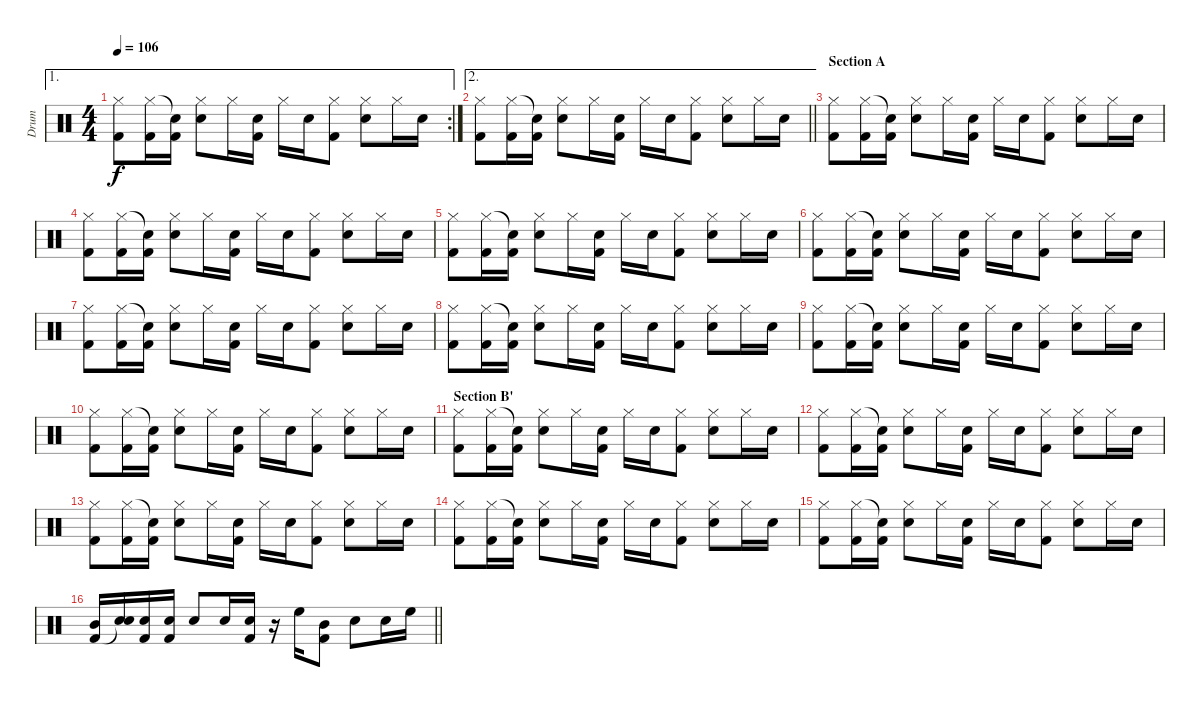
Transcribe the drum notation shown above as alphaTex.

\track ("Drum" "Drum") {instrument percussion}
\staff {score}
\articulation defaults
\ae 1
\rc 2
\ts (4 4)
\tempo 106
\clef neutral
\ks c
("Hi-Hat (closed)" "Kick (hit) 2").8{dy f} ("Hi-Hat (closed)" "Kick (hit) 2").16 ("Snare (hit)"{t} "Kick (hit) 2").16 ("Hi-Hat (closed)" "Snare (hit) 2").8 "Hi-Hat (closed)".16 ("Snare (hit) 2" "Kick (hit) 2").16 "Hi-Hat (closed)".16 "Snare (hit) 2".16 ("Hi-Hat (closed)" "Kick (hit) 2").8 ("Hi-Hat (closed)" "Snare (hit) 2").8 "Hi-Hat (closed)".16 "Snare (hit) 2".16 |
\ae 2
\barLineRight lightlight
("Hi-Hat (closed)" "Kick (hit) 2").8 ("Hi-Hat (closed)" "Kick (hit) 2").16 ("Snare (hit)"{t} "Kick (hit) 2").16 ("Hi-Hat (closed)" "Snare (hit) 2").8 "Hi-Hat (closed)".16 ("Snare (hit) 2" "Kick (hit) 2").16 "Hi-Hat (closed)".16 "Snare (hit) 2".16 ("Hi-Hat (closed)" "Kick (hit) 2").8 ("Hi-Hat (closed)" "Snare (hit) 2").8 "Hi-Hat (closed)".16 "Snare (hit) 2".16 |
\section ("" "Section A")
("Hi-Hat (closed)" "Kick (hit) 2").8 ("Hi-Hat (closed)" "Kick (hit) 2").16 ("Snare (hit)"{t} "Kick (hit) 2").16 ("Hi-Hat (closed)" "Snare (hit) 2").8 "Hi-Hat (closed)".16 ("Snare (hit) 2" "Kick (hit) 2").16 "Hi-Hat (closed)".16 "Snare (hit) 2".16 ("Hi-Hat (closed)" "Kick (hit) 2").8 ("Hi-Hat (closed)" "Snare (hit) 2").8 "Hi-Hat (closed)".16 "Snare (hit) 2".16 |
("Hi-Hat (closed)" "Kick (hit) 2").8 ("Hi-Hat (closed)" "Kick (hit) 2").16 ("Snare (hit)"{t} "Kick (hit) 2").16 ("Hi-Hat (closed)" "Snare (hit) 2").8 "Hi-Hat (closed)".16 ("Snare (hit) 2" "Kick (hit) 2").16 "Hi-Hat (closed)".16 "Snare (hit) 2".16 ("Hi-Hat (closed)" "Kick (hit) 2").8 ("Hi-Hat (closed)" "Snare (hit) 2").8 "Hi-Hat (closed)".16 "Snare (hit) 2".16 |
("Hi-Hat (closed)" "Kick (hit) 2").8 ("Hi-Hat (closed)" "Kick (hit) 2").16 ("Snare (hit)"{t} "Kick (hit) 2").16 ("Hi-Hat (closed)" "Snare (hit) 2").8 "Hi-Hat (closed)".16 ("Snare (hit) 2" "Kick (hit) 2").16 "Hi-Hat (closed)".16 "Snare (hit) 2".16 ("Hi-Hat (closed)" "Kick (hit) 2").8 ("Hi-Hat (closed)" "Snare (hit) 2").8 "Hi-Hat (closed)".16 "Snare (hit) 2".16 |
("Hi-Hat (closed)" "Kick (hit) 2").8 ("Hi-Hat (closed)" "Kick (hit) 2").16 ("Snare (hit)"{t} "Kick (hit) 2").16 ("Hi-Hat (closed)" "Snare (hit) 2").8 "Hi-Hat (closed)".16 ("Snare (hit) 2" "Kick (hit) 2").16 "Hi-Hat (closed)".16 "Snare (hit) 2".16 ("Hi-Hat (closed)" "Kick (hit) 2").8 ("Hi-Hat (closed)" "Snare (hit) 2").8 "Hi-Hat (closed)".16 "Snare (hit) 2".16 |
("Hi-Hat (closed)" "Kick (hit) 2").8 ("Hi-Hat (closed)" "Kick (hit) 2").16 ("Snare (hit)"{t} "Kick (hit) 2").16 ("Hi-Hat (closed)" "Snare (hit) 2").8 "Hi-Hat (closed)".16 ("Snare (hit) 2" "Kick (hit) 2").16 "Hi-Hat (closed)".16 "Snare (hit) 2".16 ("Hi-Hat (closed)" "Kick (hit) 2").8 ("Hi-Hat (closed)" "Snare (hit) 2").8 "Hi-Hat (closed)".16 "Snare (hit) 2".16 |
("Hi-Hat (closed)" "Kick (hit) 2").8 ("Hi-Hat (closed)" "Kick (hit) 2").16 ("Snare (hit)"{t} "Kick (hit) 2").16 ("Hi-Hat (closed)" "Snare (hit) 2").8 "Hi-Hat (closed)".16 ("Snare (hit) 2" "Kick (hit) 2").16 "Hi-Hat (closed)".16 "Snare (hit) 2".16 ("Hi-Hat (closed)" "Kick (hit) 2").8 ("Hi-Hat (closed)" "Snare (hit) 2").8 "Hi-Hat (closed)".16 "Snare (hit) 2".16 |
("Hi-Hat (closed)" "Kick (hit) 2").8 ("Hi-Hat (closed)" "Kick (hit) 2").16 ("Snare (hit)"{t} "Kick (hit) 2").16 ("Hi-Hat (closed)" "Snare (hit) 2").8 "Hi-Hat (closed)".16 ("Snare (hit) 2" "Kick (hit) 2").16 "Hi-Hat (closed)".16 "Snare (hit) 2".16 ("Hi-Hat (closed)" "Kick (hit) 2").8 ("Hi-Hat (closed)" "Snare (hit) 2").8 "Hi-Hat (closed)".16 "Snare (hit) 2".16 |
("Hi-Hat (closed)" "Kick (hit) 2").8 ("Hi-Hat (closed)" "Kick (hit) 2").16 ("Snare (hit)"{t} "Kick (hit) 2").16 ("Hi-Hat (closed)" "Snare (hit) 2").8 "Hi-Hat (closed)".16 ("Snare (hit) 2" "Kick (hit) 2").16 "Hi-Hat (closed)".16 "Snare (hit) 2".16 ("Hi-Hat (closed)" "Kick (hit) 2").8 ("Hi-Hat (closed)" "Snare (hit) 2").8 "Hi-Hat (closed)".16 "Snare (hit) 2".16 |
\section ("" "Section B'")
("Hi-Hat (closed)" "Kick (hit) 2").8 ("Hi-Hat (closed)" "Kick (hit) 2").16 ("Snare (hit)"{t} "Kick (hit) 2").16 ("Hi-Hat (closed)" "Snare (hit) 2").8 "Hi-Hat (closed)".16 ("Snare (hit) 2" "Kick (hit) 2").16 "Hi-Hat (closed)".16 "Snare (hit) 2".16 ("Hi-Hat (closed)" "Kick (hit) 2").8 ("Hi-Hat (closed)" "Snare (hit) 2").8 "Hi-Hat (closed)".16 "Snare (hit) 2".16 |
("Hi-Hat (closed)" "Kick (hit) 2").8 ("Hi-Hat (closed)" "Kick (hit) 2").16 ("Snare (hit)"{t} "Kick (hit) 2").16 ("Hi-Hat (closed)" "Snare (hit) 2").8 "Hi-Hat (closed)".16 ("Snare (hit) 2" "Kick (hit) 2").16 "Hi-Hat (closed)".16 "Snare (hit) 2".16 ("Hi-Hat (closed)" "Kick (hit) 2").8 ("Hi-Hat (closed)" "Snare (hit) 2").8 "Hi-Hat (closed)".16 "Snare (hit) 2".16 |
("Hi-Hat (closed)" "Kick (hit) 2").8 ("Hi-Hat (closed)" "Kick (hit) 2").16 ("Snare (hit)"{t} "Kick (hit) 2").16 ("Hi-Hat (closed)" "Snare (hit) 2").8 "Hi-Hat (closed)".16 ("Snare (hit) 2" "Kick (hit) 2").16 "Hi-Hat (closed)".16 "Snare (hit) 2".16 ("Hi-Hat (closed)" "Kick (hit) 2").8 ("Hi-Hat (closed)" "Snare (hit) 2").8 "Hi-Hat (closed)".16 "Snare (hit) 2".16 |
("Hi-Hat (closed)" "Kick (hit) 2").8 ("Hi-Hat (closed)" "Kick (hit) 2").16 ("Snare (hit)"{t} "Kick (hit) 2").16 ("Hi-Hat (closed)" "Snare (hit) 2").8 "Hi-Hat (closed)".16 ("Snare (hit) 2" "Kick (hit) 2").16 "Hi-Hat (closed)".16 "Snare (hit) 2".16 ("Hi-Hat (closed)" "Kick (hit) 2").8 ("Hi-Hat (closed)" "Snare (hit) 2").8 "Hi-Hat (closed)".16 "Snare (hit) 2".16 |
("Hi-Hat (closed)" "Kick (hit) 2").8 ("Hi-Hat (closed)" "Kick (hit) 2").16 ("Snare (hit)"{t} "Kick (hit) 2").16 ("Hi-Hat (closed)" "Snare (hit) 2").8 "Hi-Hat (closed)".16 ("Snare (hit) 2" "Kick (hit) 2").16 "Hi-Hat (closed)".16 "Snare (hit) 2".16 ("Hi-Hat (closed)" "Kick (hit) 2").8 ("Hi-Hat (closed)" "Snare (hit) 2").8 "Hi-Hat (closed)".16 "Snare (hit) 2".16 |
\barLineRight lightlight
("Mid Tom (hit)" "Kick (hit) 2").16 ("Snare (hit) 2" "Snare (hit)"{t}).16 ("Snare (hit) 2" "Kick (hit) 2").16 ("Snare (hit) 2" "Kick (hit) 2").16 "Snare (hit) 2".8 "Snare (hit) 2".16 ("Snare (hit) 2" "Kick (hit) 2").16 r.16 "High Floor Tom (hit)".16 ("Mid Tom (hit)" "Kick (hit) 2").8 "Snare (hit) 2".8 "Snare (hit) 2".16 "High Floor Tom (hit)".16
